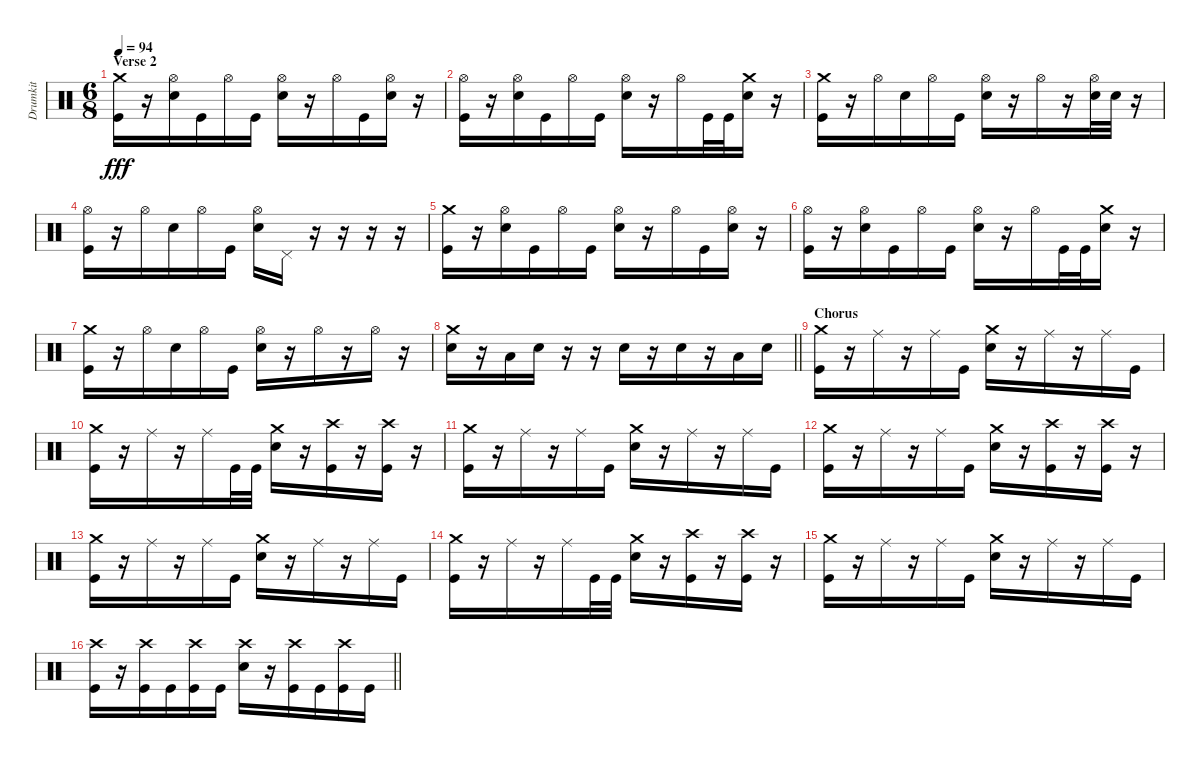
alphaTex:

\track ("Drumkit" "Drumkit") {instrument percussion}
\staff {score}
\articulation defaults
\ts (6 8)
\section ("" "Verse 2")
\tempo 94
\clef neutral
\ks c
("Crash medium (hit)" "Kick (hit)").16{dy fff} r.16 ("Hi-Hat (open)" "Snare (hit) 2").16 "Kick (hit)".16 "Hi-Hat (open)".16 "Kick (hit)".16 ("Hi-Hat (open)" "Snare (hit) 2").16 r.16 "Hi-Hat (open)".16 "Kick (hit)".16 ("Hi-Hat (open)" "Snare (hit) 2").16 r.16 |
("Hi-Hat (open)" "Kick (hit)").16 r.16 ("Hi-Hat (open)" "Snare (hit) 2").16 "Kick (hit)".16 "Hi-Hat (open)".16 "Kick (hit)".16 ("Hi-Hat (open)" "Snare (hit) 2").16 r.16 "Hi-Hat (open)".16 "Kick (hit)".32 "Kick (hit)".32 ("Crash medium (hit)" "Snare (hit) 2").16 r.16 |
("Crash medium (hit)" "Kick (hit)").16 r.16 "Hi-Hat (open)".16 "Snare (hit) 2".16 "Hi-Hat (open)".16 "Kick (hit)".16 ("Hi-Hat (open)" "Snare (hit) 2").16 r.16 "Hi-Hat (open)".16 r.16 ("Hi-Hat (open)" "Snare (hit) 2").32 "Snare (hit) 2".32 r.16 |
("Hi-Hat (open)" "Kick (hit)").16 r.16 "Hi-Hat (open)".16 "Snare (hit) 2".16 "Hi-Hat (open)".16 "Kick (hit)".16 ("Hi-Hat (open)" "Snare (hit) 2").16 "Pedal Hi-Hat (hit)".16 r.16 r.16 r.16 r.16 |
("Crash medium (hit)" "Kick (hit)").16 r.16 ("Hi-Hat (open)" "Snare (hit) 2").16 "Kick (hit)".16 "Hi-Hat (open)".16 "Kick (hit)".16 ("Hi-Hat (open)" "Snare (hit) 2").16 r.16 "Hi-Hat (open)".16 "Kick (hit)".16 ("Hi-Hat (open)" "Snare (hit) 2").16 r.16 |
("Hi-Hat (open)" "Kick (hit)").16 r.16 ("Hi-Hat (open)" "Snare (hit) 2").16 "Kick (hit)".16 "Hi-Hat (open)".16 "Kick (hit)".16 ("Hi-Hat (open)" "Snare (hit) 2").16 r.16 "Hi-Hat (open)".16 "Kick (hit)".32 "Kick (hit)".32 ("Crash medium (hit)" "Snare (hit) 2").16 r.16 |
("Crash medium (hit)" "Kick (hit)").16 r.16 "Hi-Hat (open)".16 "Snare (hit) 2".16 "Hi-Hat (open)".16 "Kick (hit)".16 ("Hi-Hat (open)" "Snare (hit) 2").16 r.16 "Hi-Hat (open)".16 r.16 "Hi-Hat (open)".16 r.16 |
\barLineRight lightlight
("Crash medium (hit)" "Snare (hit) 2").16 r.16 "Low Tom (hit)".16 "Snare (hit) 2".16 r.16 r.16 "Snare (hit) 2".16 r.16 "Snare (hit) 2".16 r.16 "Low Floor Tom (hit)".16 "Snare (hit) 2".16 |
\section ("" "Chorus")
("Crash medium (hit)" "Kick (hit)").16 r.16 "Ride (middle)".16 r.16 "Ride (middle)".16 "Kick (hit)".16 ("Crash medium (hit)" "Snare (hit) 2").16 r.16 "Ride (middle)".16 r.16 "Ride (middle)".16 "Kick (hit)".16 |
("Crash medium (hit)" "Kick (hit)").16 r.16 "Ride (middle)".16 r.16 "Ride (middle)".16 "Kick (hit)".32 "Kick (hit)".32 ("Crash medium (hit)" "Snare (hit) 2").16 r.16 ("Crash high (hit)" "Kick (hit)").16 r.16 ("Crash high (hit)" "Kick (hit)").16 r.16 |
("Crash medium (hit)" "Kick (hit)").16 r.16 "Ride (middle)".16 r.16 "Ride (middle)".16 "Kick (hit)".16 ("Crash medium (hit)" "Snare (hit) 2").16 r.16 "Ride (middle)".16 r.16 "Ride (middle)".16 "Kick (hit)".16 |
("Crash medium (hit)" "Kick (hit)").16 r.16 "Ride (middle)".16 r.16 "Ride (middle)".16 "Kick (hit)".16 ("Crash medium (hit)" "Snare (hit) 2").16 r.16 ("Crash high (hit)" "Kick (hit)").16 r.16 ("Crash high (hit)" "Kick (hit)").16 r.16 |
("Crash medium (hit)" "Kick (hit)").16 r.16 "Ride (middle)".16 r.16 "Ride (middle)".16 "Kick (hit)".16 ("Crash medium (hit)" "Snare (hit) 2").16 r.16 "Ride (middle)".16 r.16 "Ride (middle)".16 "Kick (hit)".16 |
("Crash medium (hit)" "Kick (hit)").16 r.16 "Ride (middle)".16 r.16 "Ride (middle)".16 "Kick (hit)".32 "Kick (hit)".32 ("Crash medium (hit)" "Snare (hit) 2").16 r.16 ("Crash high (hit)" "Kick (hit)").16 r.16 ("Crash high (hit)" "Kick (hit)").16 r.16 |
("Crash medium (hit)" "Kick (hit)").16 r.16 "Ride (middle)".16 r.16 "Ride (middle)".16 "Kick (hit)".16 ("Crash medium (hit)" "Snare (hit) 2").16 r.16 "Ride (middle)".16 r.16 "Ride (middle)".16 "Kick (hit)".16 |
\barLineRight lightlight
("Crash high (hit)" "Kick (hit)").16 r.16 ("Crash high (hit)" "Kick (hit)").16 "Kick (hit)".16 ("Crash high (hit)" "Kick (hit)").16 "Kick (hit)".16 ("Crash high (hit)" "Snare (hit) 2").16 r.16 ("Crash high (hit)" "Kick (hit)").16 "Kick (hit)".16 ("Crash high (hit)" "Kick (hit)").16 "Kick (hit)".16
